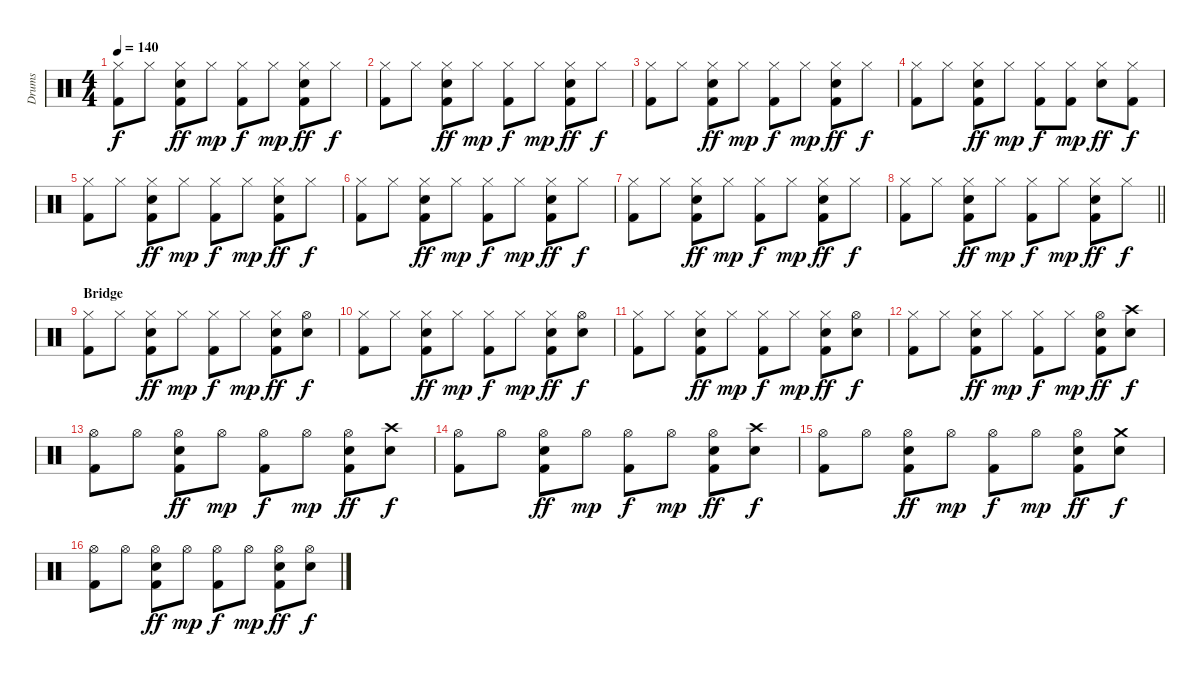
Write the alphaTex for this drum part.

\track ("Drums" "Drums") {instrument percussion}
\staff {score}
\articulation defaults
\ts (4 4)
\tempo 140
\clef neutral
\ks c
("Hi-Hat (closed)" "Kick (hit) 2").8{dy f} "Hi-Hat (closed)".8 ("Hi-Hat (closed)" "Electric Snare (hit)" "Kick (hit) 2").8{dy ff} "Hi-Hat (closed)".8{dy mp} ("Hi-Hat (closed)" "Kick (hit) 2").8{dy f} "Hi-Hat (closed)".8{dy mp} ("Hi-Hat (closed)" "Electric Snare (hit)" "Kick (hit) 2").8{dy ff} "Hi-Hat (closed)".8{dy f} |
("Hi-Hat (closed)" "Kick (hit) 2").8 "Hi-Hat (closed)".8 ("Hi-Hat (closed)" "Electric Snare (hit)" "Kick (hit) 2").8{dy ff} "Hi-Hat (closed)".8{dy mp} ("Hi-Hat (closed)" "Kick (hit) 2").8{dy f} "Hi-Hat (closed)".8{dy mp} ("Hi-Hat (closed)" "Electric Snare (hit)" "Kick (hit) 2").8{dy ff} "Hi-Hat (closed)".8{dy f} |
("Hi-Hat (closed)" "Kick (hit) 2").8 "Hi-Hat (closed)".8 ("Hi-Hat (closed)" "Electric Snare (hit)" "Kick (hit) 2").8{dy ff} "Hi-Hat (closed)".8{dy mp} ("Hi-Hat (closed)" "Kick (hit) 2").8{dy f} "Hi-Hat (closed)".8{dy mp} ("Hi-Hat (closed)" "Electric Snare (hit)" "Kick (hit) 2").8{dy ff} "Hi-Hat (closed)".8{dy f} |
("Hi-Hat (closed)" "Kick (hit) 2").8 "Hi-Hat (closed)".8 ("Hi-Hat (closed)" "Electric Snare (hit)" "Kick (hit) 2").8{dy ff} "Hi-Hat (closed)".8{dy mp} ("Hi-Hat (closed)" "Kick (hit) 2").8{dy f} ("Hi-Hat (closed)" "Kick (hit) 2").8{dy mp} ("Hi-Hat (closed)" "Electric Snare (hit)").8{dy ff} ("Hi-Hat (closed)" "Kick (hit) 2").8{dy f} |
("Hi-Hat (closed)" "Kick (hit) 2").8 "Hi-Hat (closed)".8 ("Hi-Hat (closed)" "Electric Snare (hit)" "Kick (hit) 2").8{dy ff} "Hi-Hat (closed)".8{dy mp} ("Hi-Hat (closed)" "Kick (hit) 2").8{dy f} "Hi-Hat (closed)".8{dy mp} ("Hi-Hat (closed)" "Electric Snare (hit)" "Kick (hit) 2").8{dy ff} "Hi-Hat (closed)".8{dy f} |
("Hi-Hat (closed)" "Kick (hit) 2").8 "Hi-Hat (closed)".8 ("Hi-Hat (closed)" "Electric Snare (hit)" "Kick (hit) 2").8{dy ff} "Hi-Hat (closed)".8{dy mp} ("Hi-Hat (closed)" "Kick (hit) 2").8{dy f} "Hi-Hat (closed)".8{dy mp} ("Hi-Hat (closed)" "Electric Snare (hit)" "Kick (hit) 2").8{dy ff} "Hi-Hat (closed)".8{dy f} |
("Hi-Hat (closed)" "Kick (hit) 2").8 "Hi-Hat (closed)".8 ("Hi-Hat (closed)" "Electric Snare (hit)" "Kick (hit) 2").8{dy ff} "Hi-Hat (closed)".8{dy mp} ("Hi-Hat (closed)" "Kick (hit) 2").8{dy f} "Hi-Hat (closed)".8{dy mp} ("Hi-Hat (closed)" "Electric Snare (hit)" "Kick (hit) 2").8{dy ff} "Hi-Hat (closed)".8{dy f} |
\barLineRight lightlight
("Hi-Hat (closed)" "Kick (hit) 2").8 "Hi-Hat (closed)".8 ("Hi-Hat (closed)" "Electric Snare (hit)" "Kick (hit) 2").8{dy ff} "Hi-Hat (closed)".8{dy mp} ("Hi-Hat (closed)" "Kick (hit) 2").8{dy f} "Hi-Hat (closed)".8{dy mp} ("Hi-Hat (closed)" "Electric Snare (hit)" "Kick (hit) 2").8{dy ff} "Hi-Hat (closed)".8{dy f} |
\section ("" "Bridge")
("Hi-Hat (closed)" "Kick (hit) 2").8 "Hi-Hat (closed)".8 ("Hi-Hat (closed)" "Electric Snare (hit)" "Kick (hit) 2").8{dy ff} "Hi-Hat (closed)".8{dy mp} ("Hi-Hat (closed)" "Kick (hit) 2").8{dy f} "Hi-Hat (closed)".8{dy mp} ("Hi-Hat (closed)" "Electric Snare (hit)" "Kick (hit) 2").8{dy ff} ("Hi-Hat (open)" "Electric Snare (hit)").8{dy f} |
("Hi-Hat (closed)" "Kick (hit) 2").8 "Hi-Hat (closed)".8 ("Hi-Hat (closed)" "Electric Snare (hit)" "Kick (hit) 2").8{dy ff} "Hi-Hat (closed)".8{dy mp} ("Hi-Hat (closed)" "Kick (hit) 2").8{dy f} "Hi-Hat (closed)".8{dy mp} ("Hi-Hat (closed)" "Electric Snare (hit)" "Kick (hit) 2").8{dy ff} ("Hi-Hat (open)" "Electric Snare (hit)").8{dy f} |
("Hi-Hat (closed)" "Kick (hit) 2").8 "Hi-Hat (closed)".8 ("Hi-Hat (closed)" "Electric Snare (hit)" "Kick (hit) 2").8{dy ff} "Hi-Hat (closed)".8{dy mp} ("Hi-Hat (closed)" "Kick (hit) 2").8{dy f} "Hi-Hat (closed)".8{dy mp} ("Hi-Hat (closed)" "Electric Snare (hit)" "Kick (hit) 2").8{dy ff} ("Hi-Hat (open)" "Electric Snare (hit)").8{dy f} |
("Hi-Hat (closed)" "Kick (hit) 2").8 "Hi-Hat (closed)".8 ("Hi-Hat (closed)" "Electric Snare (hit)" "Kick (hit) 2").8{dy ff} "Hi-Hat (closed)".8{dy mp} ("Hi-Hat (closed)" "Kick (hit) 2").8{dy f} "Hi-Hat (closed)".8{dy mp} ("Hi-Hat (open)" "Electric Snare (hit)" "Kick (hit) 2").8{dy ff} ("Crash high (hit)" "Electric Snare (hit)").8{dy f} |
("Hi-Hat (open)" "Kick (hit) 2").8 "Hi-Hat (open)".8 ("Hi-Hat (open)" "Electric Snare (hit)" "Kick (hit) 2").8{dy ff} "Hi-Hat (open)".8{dy mp} ("Hi-Hat (open)" "Kick (hit) 2").8{dy f} "Hi-Hat (open)".8{dy mp} ("Hi-Hat (open)" "Electric Snare (hit)" "Kick (hit) 2").8{dy ff} ("Crash high (hit)" "Electric Snare (hit)").8{dy f} |
("Hi-Hat (open)" "Kick (hit) 2").8 "Hi-Hat (open)".8 ("Hi-Hat (open)" "Electric Snare (hit)" "Kick (hit) 2").8{dy ff} "Hi-Hat (open)".8{dy mp} ("Hi-Hat (open)" "Kick (hit) 2").8{dy f} "Hi-Hat (open)".8{dy mp} ("Hi-Hat (open)" "Electric Snare (hit)" "Kick (hit) 2").8{dy ff} ("Crash high (hit)" "Electric Snare (hit)").8{dy f} |
("Hi-Hat (open)" "Kick (hit) 2").8 "Hi-Hat (open)".8 ("Hi-Hat (open)" "Electric Snare (hit)" "Kick (hit) 2").8{dy ff} "Hi-Hat (open)".8{dy mp} ("Hi-Hat (open)" "Kick (hit) 2").8{dy f} "Hi-Hat (open)".8{dy mp} ("Hi-Hat (open)" "Electric Snare (hit)" "Kick (hit) 2").8{dy ff} ("Crash medium (hit)" "Electric Snare (hit)").8{dy f} |
("Hi-Hat (open)" "Kick (hit) 2").8 "Hi-Hat (open)".8 ("Hi-Hat (open)" "Electric Snare (hit)" "Kick (hit) 2").8{dy ff} "Hi-Hat (open)".8{dy mp} ("Hi-Hat (open)" "Kick (hit) 2").8{dy f} "Hi-Hat (open)".8{dy mp} ("Hi-Hat (open)" "Electric Snare (hit)" "Kick (hit) 2").8{dy ff} ("Hi-Hat (open)" "Electric Snare (hit)").8{dy f}
